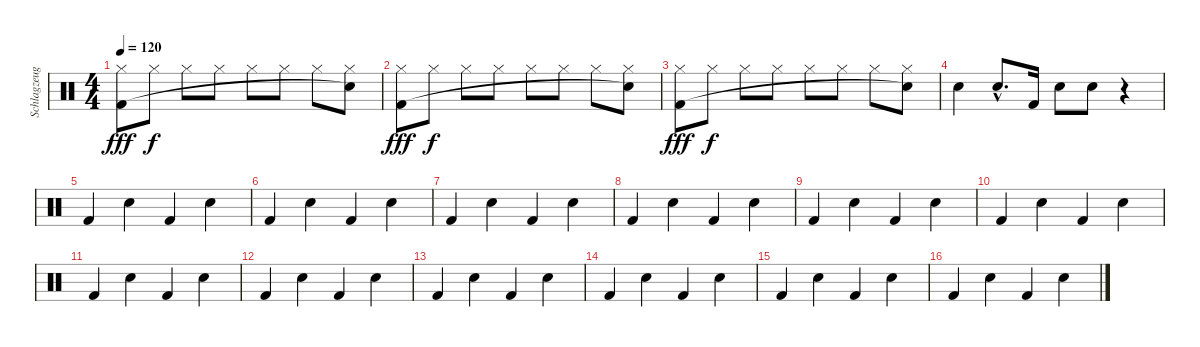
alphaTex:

\track ("Schlagzeug" "Schlagzeug") {instrument percussion}
\staff {score}
\articulation defaults
\ts (4 4)
\tempo 120
\clef neutral
\ks c
("Hi-Hat (closed)" "Kick (hit) 2").8{dy fff} "Hi-Hat (closed)".8{dy f} "Hi-Hat (closed)".8 "Hi-Hat (closed)".8 "Hi-Hat (closed)".8 "Hi-Hat (closed)".8 "Hi-Hat (closed)".8 ("Hi-Hat (closed)" "Snare (hit)"{t}).8 |
("Hi-Hat (closed)" "Kick (hit) 2").8{dy fff} "Hi-Hat (closed)".8{dy f} "Hi-Hat (closed)".8 "Hi-Hat (closed)".8 "Hi-Hat (closed)".8 "Hi-Hat (closed)".8 "Hi-Hat (closed)".8 ("Hi-Hat (closed)" "Snare (hit)"{t}).8 |
("Hi-Hat (closed)" "Kick (hit) 2").8{dy fff} "Hi-Hat (closed)".8{dy f} "Hi-Hat (closed)".8 "Hi-Hat (closed)".8 "Hi-Hat (closed)".8 "Hi-Hat (closed)".8 "Hi-Hat (closed)".8 ("Hi-Hat (closed)" "Snare (hit)"{t}).8 |
"Snare (hit) 2".4 "Snare (hit) 2"{hac}.8{d} "Kick (hit) 2".16 "Snare (hit) 2".8 "Snare (hit) 2".8 r.4 |
"Kick (hit) 2".4 "Snare (hit) 2".4 "Kick (hit) 2".4 "Snare (hit) 2".4 |
"Kick (hit) 2".4 "Snare (hit) 2".4 "Kick (hit) 2".4 "Snare (hit) 2".4 |
"Kick (hit) 2".4 "Snare (hit) 2".4 "Kick (hit) 2".4 "Snare (hit) 2".4 |
"Kick (hit) 2".4 "Snare (hit) 2".4 "Kick (hit) 2".4 "Snare (hit) 2".4 |
"Kick (hit) 2".4 "Snare (hit) 2".4 "Kick (hit) 2".4 "Snare (hit) 2".4 |
"Kick (hit) 2".4 "Snare (hit) 2".4 "Kick (hit) 2".4 "Snare (hit) 2".4 |
"Kick (hit) 2".4 "Snare (hit) 2".4 "Kick (hit) 2".4 "Snare (hit) 2".4 |
"Kick (hit) 2".4 "Snare (hit) 2".4 "Kick (hit) 2".4 "Snare (hit) 2".4 |
"Kick (hit) 2".4 "Snare (hit) 2".4 "Kick (hit) 2".4 "Snare (hit) 2".4 |
"Kick (hit) 2".4 "Snare (hit) 2".4 "Kick (hit) 2".4 "Snare (hit) 2".4 |
"Kick (hit) 2".4 "Snare (hit) 2".4 "Kick (hit) 2".4 "Snare (hit) 2".4 |
"Kick (hit) 2".4 "Snare (hit) 2".4 "Kick (hit) 2".4 "Snare (hit) 2".4
